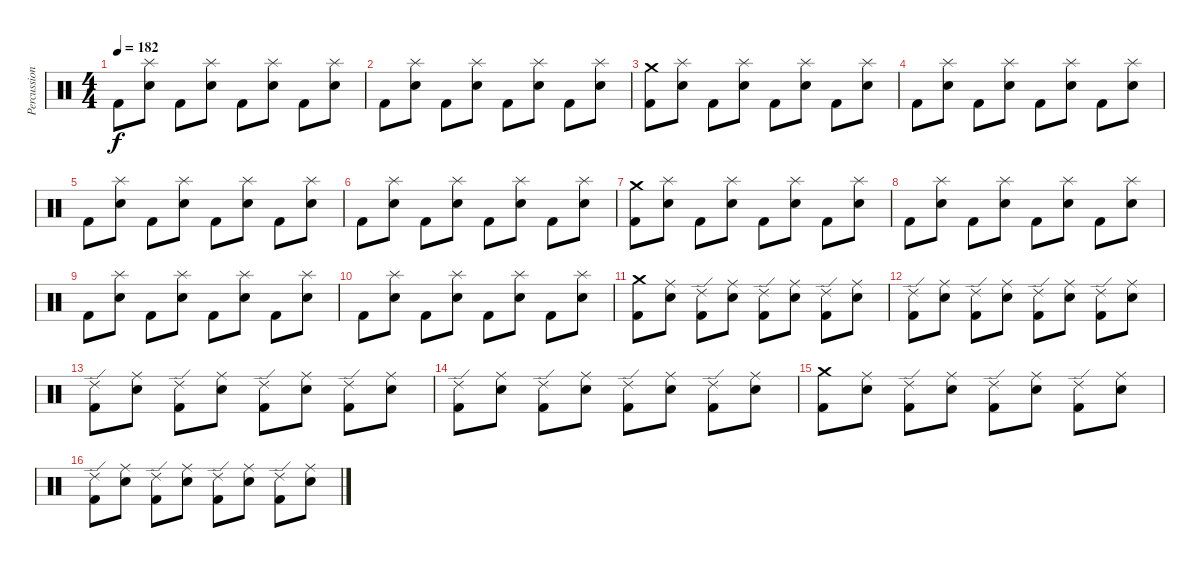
\track ("Percussion" "Percussion") {instrument percussion}
\staff {score}
\articulation defaults
\ts (4 4)
\tempo 182
\clef neutral
\ks c "Kick (hit) 2".8{dy f}
("Splash (hit)" "Electric Snare (hit)").8 "Kick (hit) 2".8 ("Splash (hit)" "Electric Snare (hit)").8 "Kick (hit) 2".8 ("Splash (hit)" "Electric Snare (hit)").8 "Kick (hit) 2".8 ("Splash (hit)" "Electric Snare (hit)").8 |
"Kick (hit) 2".8 ("Splash (hit)" "Electric Snare (hit)").8 "Kick (hit) 2".8 ("Splash (hit)" "Electric Snare (hit)").8 "Kick (hit) 2".8 ("Splash (hit)" "Electric Snare (hit)").8 "Kick (hit) 2".8 ("Splash (hit)" "Electric Snare (hit)").8 |
("Crash medium (hit)" "Kick (hit) 2").8 ("Splash (hit)" "Electric Snare (hit)").8 "Kick (hit) 2".8 ("Splash (hit)" "Electric Snare (hit)").8 "Kick (hit) 2".8 ("Splash (hit)" "Electric Snare (hit)").8 "Kick (hit) 2".8 ("Splash (hit)" "Electric Snare (hit)").8 |
"Kick (hit) 2".8 ("Splash (hit)" "Electric Snare (hit)").8 "Kick (hit) 2".8 ("Splash (hit)" "Electric Snare (hit)").8 "Kick (hit) 2".8 ("Splash (hit)" "Electric Snare (hit)").8 "Kick (hit) 2".8 ("Splash (hit)" "Electric Snare (hit)").8 |
"Kick (hit) 2".8 ("Splash (hit)" "Electric Snare (hit)").8 "Kick (hit) 2".8 ("Splash (hit)" "Electric Snare (hit)").8 "Kick (hit) 2".8 ("Splash (hit)" "Electric Snare (hit)").8 "Kick (hit) 2".8 ("Splash (hit)" "Electric Snare (hit)").8 |
"Kick (hit) 2".8 ("Splash (hit)" "Electric Snare (hit)").8 "Kick (hit) 2".8 ("Splash (hit)" "Electric Snare (hit)").8 "Kick (hit) 2".8 ("Splash (hit)" "Electric Snare (hit)").8 "Kick (hit) 2".8 ("Splash (hit)" "Electric Snare (hit)").8 |
("Crash medium (hit)" "Kick (hit) 2").8 ("Splash (hit)" "Electric Snare (hit)").8 "Kick (hit) 2".8 ("Splash (hit)" "Electric Snare (hit)").8 "Kick (hit) 2".8 ("Splash (hit)" "Electric Snare (hit)").8 "Kick (hit) 2".8 ("Splash (hit)" "Electric Snare (hit)").8 |
"Kick (hit) 2".8 ("Splash (hit)" "Electric Snare (hit)").8 "Kick (hit) 2".8 ("Splash (hit)" "Electric Snare (hit)").8 "Kick (hit) 2".8 ("Splash (hit)" "Electric Snare (hit)").8 "Kick (hit) 2".8 ("Splash (hit)" "Electric Snare (hit)").8 |
"Kick (hit) 2".8 ("Splash (hit)" "Electric Snare (hit)").8 "Kick (hit) 2".8 ("Splash (hit)" "Electric Snare (hit)").8 "Kick (hit) 2".8 ("Splash (hit)" "Electric Snare (hit)").8 "Kick (hit) 2".8 ("Splash (hit)" "Electric Snare (hit)").8 |
"Kick (hit) 2".8 ("Splash (hit)" "Electric Snare (hit)").8 "Kick (hit) 2".8 ("Splash (hit)" "Electric Snare (hit)").8 "Kick (hit) 2".8 ("Splash (hit)" "Electric Snare (hit)").8 "Kick (hit) 2".8 ("Splash (hit)" "Electric Snare (hit)").8 |
("Crash medium (hit)" "Kick (hit) 2").8 ("Ride (middle)" "Electric Snare (hit)").8 ("Ride (edge) 2" "Kick (hit) 2").8 ("Ride (middle)" "Electric Snare (hit)").8 ("Ride (edge) 2" "Kick (hit) 2").8 ("Ride (middle)" "Electric Snare (hit)").8 ("Ride (edge) 2" "Kick (hit) 2").8 ("Ride (middle)" "Electric Snare (hit)").8 |
("Ride (edge) 2" "Kick (hit) 2").8 ("Ride (middle)" "Electric Snare (hit)").8 ("Ride (edge) 2" "Kick (hit) 2").8 ("Ride (middle)" "Electric Snare (hit)").8 ("Ride (edge) 2" "Kick (hit) 2").8 ("Ride (middle)" "Electric Snare (hit)").8 ("Ride (edge) 2" "Kick (hit) 2").8 ("Ride (middle)" "Electric Snare (hit)").8 |
("Ride (edge) 2" "Kick (hit) 2").8 ("Ride (middle)" "Electric Snare (hit)").8 ("Ride (edge) 2" "Kick (hit) 2").8 ("Ride (middle)" "Electric Snare (hit)").8 ("Ride (edge) 2" "Kick (hit) 2").8 ("Ride (middle)" "Electric Snare (hit)").8 ("Ride (edge) 2" "Kick (hit) 2").8 ("Ride (middle)" "Electric Snare (hit)").8 |
("Ride (edge) 2" "Kick (hit) 2").8 ("Ride (middle)" "Electric Snare (hit)").8 ("Ride (edge) 2" "Kick (hit) 2").8 ("Ride (middle)" "Electric Snare (hit)").8 ("Ride (edge) 2" "Kick (hit) 2").8 ("Ride (middle)" "Electric Snare (hit)").8 ("Ride (edge) 2" "Kick (hit) 2").8 ("Ride (middle)" "Electric Snare (hit)").8 |
("Crash medium (hit)" "Kick (hit) 2").8 ("Ride (middle)" "Electric Snare (hit)").8 ("Ride (edge) 2" "Kick (hit) 2").8 ("Ride (middle)" "Electric Snare (hit)").8 ("Ride (edge) 2" "Kick (hit) 2").8 ("Ride (middle)" "Electric Snare (hit)").8 ("Ride (edge) 2" "Kick (hit) 2").8 ("Ride (middle)" "Electric Snare (hit)").8 |
("Ride (edge) 2" "Kick (hit) 2").8 ("Ride (middle)" "Electric Snare (hit)").8 ("Ride (edge) 2" "Kick (hit) 2").8 ("Ride (middle)" "Electric Snare (hit)").8 ("Ride (edge) 2" "Kick (hit) 2").8 ("Ride (middle)" "Electric Snare (hit)").8 ("Ride (edge) 2" "Kick (hit) 2").8 ("Ride (middle)" "Electric Snare (hit)").8
